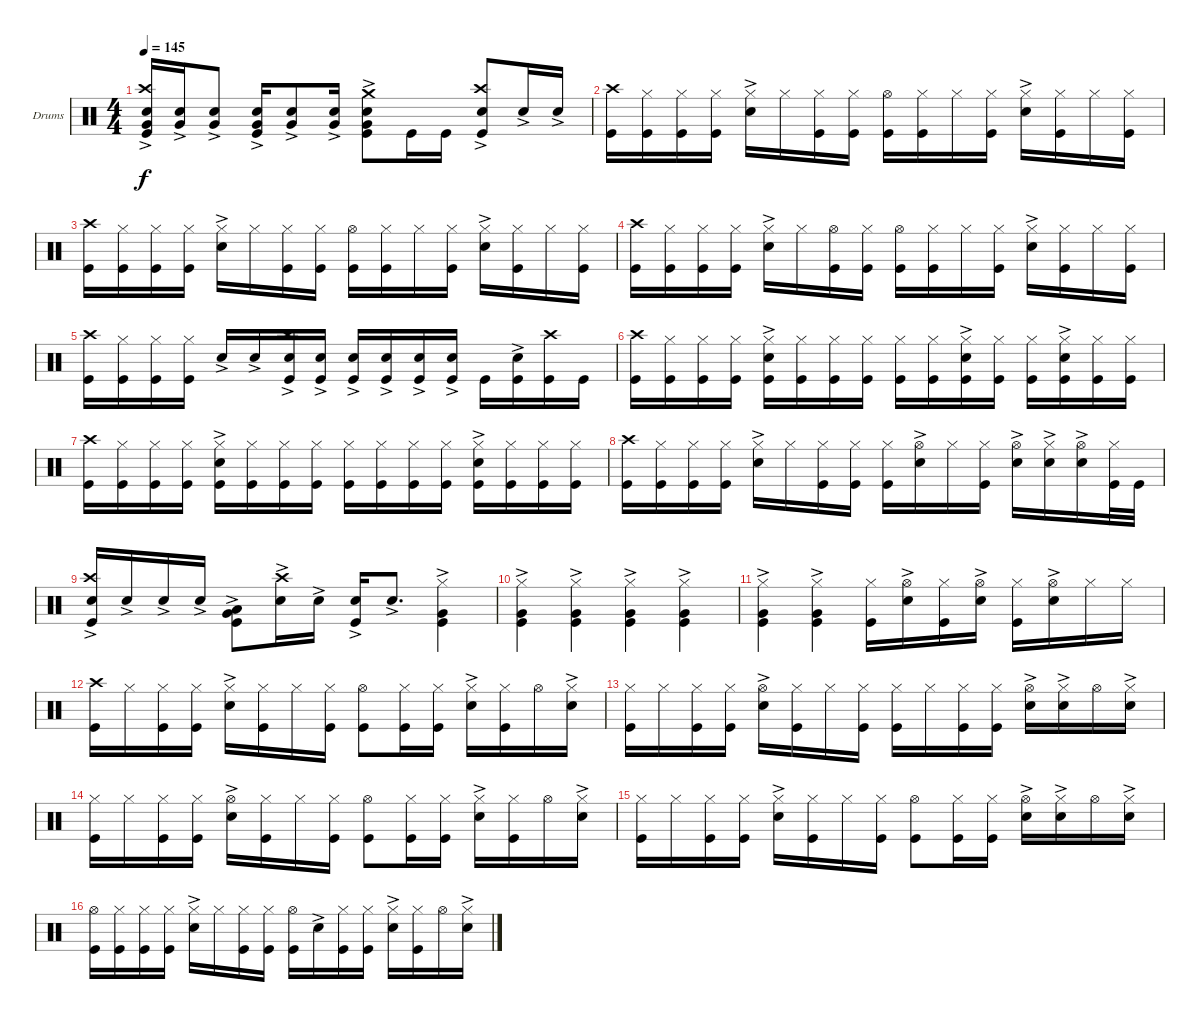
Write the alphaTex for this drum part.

\defaultSystemsLayout 4
\bracketExtendMode groupsimilarinstruments
\firstSystemTrackNameOrientation horizontal
\otherSystemsTrackNameOrientation horizontal
\track ("Drumkit" "Drums") {instrument percussion}
\staff {score}
\articulation defaults
\ts (4 4)
\tempo 145
\clef neutral
\ks c
("Snare (hit) 2"{ac} "Very Low Tom (hit)"{ac} "Crash high (hit)" "Kick (hit)").16{dy f} ("Snare (hit) 2"{ac} "Very Low Tom (hit)"{ac}).16 ("Snare (hit) 2"{ac} "Very Low Tom (hit)"{ac}).8 ("Snare (hit) 2"{ac} "Very Low Tom (hit)"{ac} "Kick (hit)").16 ("Snare (hit) 2"{ac} "Very Low Tom (hit)"{ac}).8 ("Snare (hit) 2"{ac} "Very Low Tom (hit)"{ac}).16 ("Snare (hit) 2"{ac} "Very Low Tom (hit)"{ac} "Crash medium (hit)" "Kick (hit)").8 "Kick (hit)".16 "Kick (hit)".16 ("Snare (hit) 2"{ac} "Crash high (hit)" "Kick (hit)").8 "Snare (hit) 2"{ac}.16 "Snare (hit) 2"{ac}.16 |
("Kick (hit)" "Crash high (hit)").16 ("Hi-Hat (closed)" "Kick (hit)").16 ("Hi-Hat (closed)" "Kick (hit)").16 ("Hi-Hat (closed)" "Kick (hit)").16 ("Hi-Hat (closed)" "Snare (hit) 2"{ac}).16 "Hi-Hat (closed)".16 ("Hi-Hat (closed)" "Kick (hit)").16 ("Hi-Hat (closed)" "Kick (hit)").16 ("Hi-Hat (open)" "Kick (hit)").16 ("Hi-Hat (closed)" "Kick (hit)").16 "Hi-Hat (closed)".16 ("Hi-Hat (closed)" "Kick (hit)").16 ("Hi-Hat (closed)" "Snare (hit) 2"{ac}).16 ("Hi-Hat (closed)" "Kick (hit)").16 "Hi-Hat (closed)".16 ("Hi-Hat (closed)" "Kick (hit)").16 |
("Kick (hit)" "Crash high (hit)").16 ("Hi-Hat (closed)" "Kick (hit)").16 ("Hi-Hat (closed)" "Kick (hit)").16 ("Hi-Hat (closed)" "Kick (hit)").16 ("Hi-Hat (closed)" "Snare (hit) 2"{ac}).16 "Hi-Hat (closed)".16 ("Hi-Hat (closed)" "Kick (hit)").16 ("Hi-Hat (closed)" "Kick (hit)").16 ("Hi-Hat (open)" "Kick (hit)").16 ("Hi-Hat (closed)" "Kick (hit)").16 "Hi-Hat (closed)".16 ("Hi-Hat (closed)" "Kick (hit)").16 ("Hi-Hat (closed)" "Snare (hit) 2"{ac}).16 ("Hi-Hat (closed)" "Kick (hit)").16 "Hi-Hat (closed)".16 ("Hi-Hat (closed)" "Kick (hit)").16 |
("Kick (hit)" "Crash high (hit)").16 ("Hi-Hat (closed)" "Kick (hit)").16 ("Hi-Hat (closed)" "Kick (hit)").16 ("Hi-Hat (closed)" "Kick (hit)").16 ("Hi-Hat (closed)" "Snare (hit) 2"{ac}).16 "Hi-Hat (closed)".16 ("Hi-Hat (open)" "Kick (hit)").16 ("Hi-Hat (closed)" "Kick (hit)").16 ("Hi-Hat (open)" "Kick (hit)").16 ("Hi-Hat (closed)" "Kick (hit)").16 "Hi-Hat (closed)".16 ("Hi-Hat (closed)" "Kick (hit)").16 ("Hi-Hat (closed)" "Snare (hit) 2"{ac}).16 ("Hi-Hat (closed)" "Kick (hit)").16 "Hi-Hat (closed)".16 ("Hi-Hat (closed)" "Kick (hit)").16 |
("Kick (hit)" "Crash high (hit)").16 ("Hi-Hat (closed)" "Kick (hit)").16 ("Hi-Hat (closed)" "Kick (hit)").16 ("Hi-Hat (closed)" "Kick (hit)").16 "Snare (hit) 2"{ac}.16 "Snare (hit) 2"{ac}.16 ("Kick (hit)" "Snare (hit) 2"{ac} "Crash high (hit)").16 ("Kick (hit)" "Snare (hit) 2"{ac}).16 ("Kick (hit)" "Snare (hit) 2"{ac}).16 ("Kick (hit)" "Snare (hit) 2"{ac}).16 ("Snare (hit) 2"{ac} "Kick (hit)").16 ("Kick (hit)" "Snare (hit) 2"{ac}).16 "Kick (hit)".16 ("Kick (hit)" "Snare (hit) 2"{ac}).16 ("Crash high (hit)" "Kick (hit)").16 "Kick (hit)".16 |
("Kick (hit)" "Crash high (hit)").16 ("Hi-Hat (closed)" "Kick (hit)").16 ("Hi-Hat (closed)" "Kick (hit)").16 ("Hi-Hat (closed)" "Kick (hit)").16 ("Hi-Hat (closed)" "Snare (hit) 2"{ac} "Kick (hit)").16 ("Hi-Hat (closed)" "Kick (hit)").16 ("Hi-Hat (closed)" "Kick (hit)").16 ("Hi-Hat (closed)" "Kick (hit)").16 ("Hi-Hat (closed)" "Kick (hit)").16 ("Hi-Hat (closed)" "Kick (hit)").16 ("Hi-Hat (closed)" "Kick (hit)" "Snare (hit) 2"{ac}).16 ("Hi-Hat (closed)" "Kick (hit)").16 ("Hi-Hat (closed)" "Kick (hit)").16 ("Hi-Hat (closed)" "Kick (hit)" "Snare (hit) 2"{ac}).16 ("Hi-Hat (closed)" "Kick (hit)").16 ("Hi-Hat (closed)" "Kick (hit)").16 |
("Kick (hit)" "Crash high (hit)").16 ("Hi-Hat (closed)" "Kick (hit)").16 ("Hi-Hat (closed)" "Kick (hit)").16 ("Hi-Hat (closed)" "Kick (hit)").16 ("Hi-Hat (closed)" "Snare (hit) 2"{ac} "Kick (hit)").16 ("Hi-Hat (closed)" "Kick (hit)").16 ("Hi-Hat (closed)" "Kick (hit)").16 ("Hi-Hat (closed)" "Kick (hit)").16 ("Hi-Hat (closed)" "Kick (hit)").16 ("Hi-Hat (closed)" "Kick (hit)").16 ("Hi-Hat (closed)" "Kick (hit)").16 ("Hi-Hat (closed)" "Kick (hit)").16 ("Hi-Hat (closed)" "Snare (hit) 2"{ac} "Kick (hit)").16 ("Hi-Hat (closed)" "Kick (hit)").16 ("Hi-Hat (closed)" "Kick (hit)").16 ("Hi-Hat (closed)" "Kick (hit)").16 |
("Kick (hit)" "Crash high (hit)").16 ("Hi-Hat (closed)" "Kick (hit)").16 ("Hi-Hat (closed)" "Kick (hit)").16 ("Hi-Hat (closed)" "Kick (hit)").16 ("Hi-Hat (closed)" "Snare (hit) 2"{ac}).16 "Hi-Hat (closed)".16 ("Hi-Hat (closed)" "Kick (hit)").16 ("Hi-Hat (closed)" "Kick (hit)").16 ("Hi-Hat (closed)" "Kick (hit)").16 ("Hi-Hat (open)" "Snare (hit) 2"{ac}).16 "Hi-Hat (closed)".16 ("Hi-Hat (closed)" "Kick (hit)").16 ("Hi-Hat (open)" "Snare (hit) 2"{ac}).16 ("Hi-Hat (closed)" "Snare (hit) 2"{ac}).16 ("Hi-Hat (open)" "Snare (hit) 2"{ac}).16 ("Hi-Hat (closed)" "Kick (hit)").32 "Kick (hit)".32 |
("Snare (hit) 2"{ac} "Crash high (hit)" "Kick (hit)").16 "Snare (hit) 2"{ac}.16 "Snare (hit) 2"{ac}.16 "Snare (hit) 2"{ac}.16 ("Kick (hit)" "Low Tom (hit)"{ac} "Very Low Tom (hit)"{ac}).8 ("Snare (hit) 2"{ac} "Crash high (hit)").16 "Snare (hit) 2"{ac}.16 ("Snare (hit) 2"{ac} "Kick (hit)").16 "Snare (hit) 2"{ac}.8{d} ("Kick (hit)" "Hi-Hat (closed)" "Very Low Tom (hit)"{ac}).4 |
("Kick (hit)" "Hi-Hat (closed)" "Very Low Tom (hit)"{ac}).4 ("Hi-Hat (closed)" "Kick (hit)" "Very Low Tom (hit)"{ac}).4 ("Hi-Hat (closed)" "Kick (hit)" "Very Low Tom (hit)"{ac}).4 ("Hi-Hat (closed)" "Kick (hit)" "Very Low Tom (hit)"{ac}).4 |
("Kick (hit)" "Hi-Hat (closed)" "Very Low Tom (hit)"{ac}).4 ("Kick (hit)" "Hi-Hat (closed)" "Very Low Tom (hit)"{ac}).4 ("Kick (hit)" "Hi-Hat (closed)").16 ("Snare (hit) 2"{ac} "Hi-Hat (open)").16 ("Kick (hit)" "Hi-Hat (closed)").16 ("Snare (hit) 2"{ac} "Hi-Hat (open)").16 ("Kick (hit)" "Hi-Hat (closed)").16 ("Snare (hit) 2"{ac} "Hi-Hat (open)").16 "Hi-Hat (closed)".16 "Hi-Hat (closed)".16 |
("Kick (hit)" "Crash high (hit)").16 "Hi-Hat (closed)".16 ("Kick (hit)" "Hi-Hat (closed)").16 ("Kick (hit)" "Hi-Hat (closed)").16 ("Snare (hit) 2"{ac} "Hi-Hat (closed)").16 ("Kick (hit)" "Hi-Hat (closed)").16 "Hi-Hat (closed)".16 ("Kick (hit)" "Hi-Hat (closed)").16 ("Kick (hit)" "Hi-Hat (open)").8 ("Kick (hit)" "Hi-Hat (closed)").16 ("Kick (hit)" "Hi-Hat (closed)").16 ("Snare (hit) 2"{ac} "Hi-Hat (closed)").16 ("Kick (hit)" "Hi-Hat (closed)").16 "Hi-Hat (open)".16 ("Snare (hit) 2"{ac} "Hi-Hat (closed)").16 |
("Kick (hit)" "Hi-Hat (closed)").16 "Hi-Hat (closed)".16 ("Kick (hit)" "Hi-Hat (closed)").16 ("Kick (hit)" "Hi-Hat (closed)").16 ("Snare (hit) 2"{ac} "Hi-Hat (open)").16 ("Kick (hit)" "Hi-Hat (closed)").16 "Hi-Hat (closed)".16 ("Kick (hit)" "Hi-Hat (closed)").16 ("Kick (hit)" "Hi-Hat (closed)").16 "Hi-Hat (closed)".16 ("Kick (hit)" "Hi-Hat (closed)").16 ("Kick (hit)" "Hi-Hat (closed)").16 ("Snare (hit) 2"{ac} "Hi-Hat (open)").16 ("Hi-Hat (closed)" "Snare (hit) 2"{ac}).16 "Hi-Hat (open)".16 ("Snare (hit) 2"{ac} "Hi-Hat (closed)").16 |
("Kick (hit)" "Hi-Hat (closed)").16 "Hi-Hat (closed)".16 ("Kick (hit)" "Hi-Hat (closed)").16 ("Kick (hit)" "Hi-Hat (closed)").16 ("Snare (hit) 2"{ac} "Hi-Hat (open)").16 ("Kick (hit)" "Hi-Hat (closed)").16 "Hi-Hat (closed)".16 ("Kick (hit)" "Hi-Hat (closed)").16 ("Kick (hit)" "Hi-Hat (open)").8 ("Kick (hit)" "Hi-Hat (closed)").16 ("Kick (hit)" "Hi-Hat (closed)").16 ("Snare (hit) 2"{ac} "Hi-Hat (closed)").16 ("Kick (hit)" "Hi-Hat (closed)").16 "Hi-Hat (open)".16 ("Snare (hit) 2"{ac} "Hi-Hat (closed)").16 |
("Kick (hit)" "Hi-Hat (closed)").16 "Hi-Hat (closed)".16 ("Kick (hit)" "Hi-Hat (closed)").16 ("Kick (hit)" "Hi-Hat (closed)").16 ("Snare (hit) 2"{ac} "Hi-Hat (closed)").16 ("Kick (hit)" "Hi-Hat (closed)").16 "Hi-Hat (closed)".16 ("Kick (hit)" "Hi-Hat (closed)").16 ("Kick (hit)" "Hi-Hat (open)").8 ("Kick (hit)" "Hi-Hat (closed)").16 ("Kick (hit)" "Hi-Hat (closed)").16 ("Snare (hit) 2"{ac} "Hi-Hat (open)").16 ("Hi-Hat (closed)" "Snare (hit) 2"{ac}).16 "Hi-Hat (open)".16 ("Snare (hit) 2"{ac} "Hi-Hat (closed)").16 |
("Kick (hit)" "Hi-Hat (open)").16 ("Hi-Hat (closed)" "Kick (hit)").16 ("Kick (hit)" "Hi-Hat (closed)").16 ("Kick (hit)" "Hi-Hat (closed)").16 ("Snare (hit) 2"{ac} "Hi-Hat (closed)").16 "Hi-Hat (closed)".16 ("Hi-Hat (closed)" "Kick (hit)").16 ("Kick (hit)" "Hi-Hat (closed)").16 ("Kick (hit)" "Hi-Hat (open)").16 "Snare (hit) 2"{ac}.16 ("Kick (hit)" "Hi-Hat (closed)").16 ("Kick (hit)" "Hi-Hat (closed)").16 ("Snare (hit) 2"{ac} "Hi-Hat (closed)").16 ("Kick (hit)" "Hi-Hat (closed)").16 "Hi-Hat (open)".16 ("Snare (hit) 2"{ac} "Hi-Hat (closed)").16
